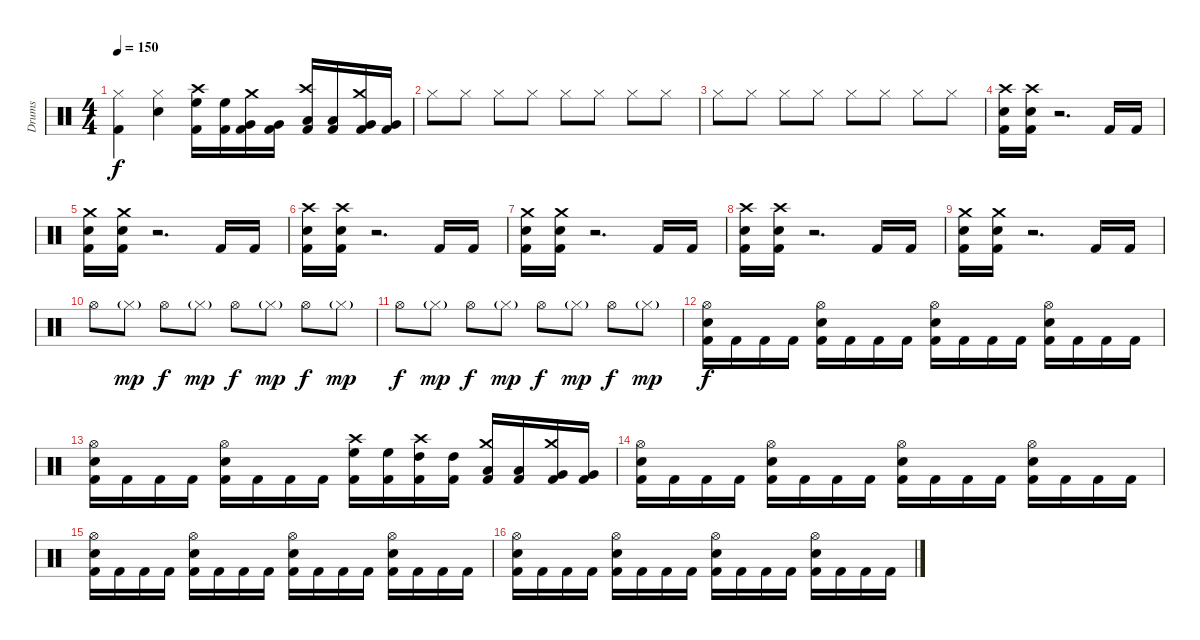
\track ("Drums" "Drums") {instrument percussion}
\staff {score}
\articulation defaults
\ts (4 4)
\tempo 150
\clef neutral
\ks c
("Hi-Hat (closed)" "Kick (hit) 2").4{dy f} ("Hi-Hat (closed)" "Snare (hit) 2").4 ("Crash high (hit)" "High Floor Tom (hit)" "Kick (hit) 2").16 ("High Floor Tom (hit)" "Kick (hit) 2").16 ("Crash medium (hit)" "Very Low Tom (hit)" "Kick (hit) 2").16 ("Very Low Tom (hit)" "Kick (hit) 2").16 ("Crash high (hit)" "Low Tom (hit)" "Kick (hit) 2").16 ("Low Tom (hit)" "Kick (hit) 2").16 ("Crash medium (hit)" "Very Low Tom (hit)" "Kick (hit) 2").16 ("Very Low Tom (hit)" "Kick (hit) 2").16 |
"Hi-Hat (closed)".8 "Hi-Hat (closed)".8 "Hi-Hat (closed)".8 "Hi-Hat (closed)".8 "Hi-Hat (closed)".8 "Hi-Hat (closed)".8 "Hi-Hat (closed)".8 "Hi-Hat (closed)".8 |
"Hi-Hat (closed)".8 "Hi-Hat (closed)".8 "Hi-Hat (closed)".8 "Hi-Hat (closed)".8 "Hi-Hat (closed)".8 "Hi-Hat (closed)".8 "Hi-Hat (closed)".8 "Hi-Hat (closed)".8 |
("Crash high (hit)" "Snare (hit) 2" "Kick (hit) 2").16 ("Crash high (hit)" "Snare (hit) 2" "Kick (hit) 2").16 r.2{d} "Kick (hit) 2".16 "Kick (hit) 2".16 |
("Crash medium (hit)" "Snare (hit) 2" "Kick (hit) 2").16 ("Crash medium (hit)" "Snare (hit) 2" "Kick (hit) 2").16 r.2{d} "Kick (hit) 2".16 "Kick (hit) 2".16 |
("Crash high (hit)" "Snare (hit) 2" "Kick (hit) 2").16 ("Crash high (hit)" "Snare (hit) 2" "Kick (hit) 2").16 r.2{d} "Kick (hit) 2".16 "Kick (hit) 2".16 |
("Crash medium (hit)" "Snare (hit) 2" "Kick (hit) 2").16 ("Crash medium (hit)" "Snare (hit) 2" "Kick (hit) 2").16 r.2{d} "Kick (hit) 2".16 "Kick (hit) 2".16 |
("Crash high (hit)" "Snare (hit) 2" "Kick (hit) 2").16 ("Crash high (hit)" "Snare (hit) 2" "Kick (hit) 2").16 r.2{d} "Kick (hit) 2".16 "Kick (hit) 2".16 |
("Crash medium (hit)" "Snare (hit) 2" "Kick (hit) 2").16 ("Crash medium (hit)" "Snare (hit) 2" "Kick (hit) 2").16 r.2{d} "Kick (hit) 2".16 "Kick (hit) 2".16 |
"Hi-Hat (open)".8 "Hi-Hat (closed)"{g}.8{dy mp} "Hi-Hat (open)".8{dy f} "Hi-Hat (closed)"{g}.8{dy mp} "Hi-Hat (open)".8{dy f} "Hi-Hat (closed)"{g}.8{dy mp} "Hi-Hat (open)".8{dy f} "Hi-Hat (closed)"{g}.8{dy mp} |
"Hi-Hat (open)".8{dy f} "Hi-Hat (closed)"{g}.8{dy mp} "Hi-Hat (open)".8{dy f} "Hi-Hat (closed)"{g}.8{dy mp} "Hi-Hat (open)".8{dy f} "Hi-Hat (closed)"{g}.8{dy mp} "Hi-Hat (open)".8{dy f} "Hi-Hat (closed)"{g}.8{dy mp} |
("Hi-Hat (open)" "Snare (hit) 2" "Kick (hit) 2").16{dy f} "Kick (hit) 2".16 "Kick (hit) 2".16 "Kick (hit) 2".16 ("Hi-Hat (open)" "Snare (hit) 2" "Kick (hit) 2").16 "Kick (hit) 2".16 "Kick (hit) 2".16 "Kick (hit) 2".16 ("Hi-Hat (open)" "Snare (hit) 2" "Kick (hit) 2").16 "Kick (hit) 2".16 "Kick (hit) 2".16 "Kick (hit) 2".16 ("Hi-Hat (open)" "Snare (hit) 2" "Kick (hit) 2").16 "Kick (hit) 2".16 "Kick (hit) 2".16 "Kick (hit) 2".16 |
("Hi-Hat (open)" "Snare (hit) 2" "Kick (hit) 2").16 "Kick (hit) 2".16 "Kick (hit) 2".16 "Kick (hit) 2".16 ("Hi-Hat (open)" "Snare (hit) 2" "Kick (hit) 2").16 "Kick (hit) 2".16 "Kick (hit) 2".16 "Kick (hit) 2".16 ("Crash high (hit)" "High Floor Tom (hit)" "Kick (hit) 2").16 ("High Floor Tom (hit)" "Kick (hit) 2").16 ("Crash high (hit)" "High Tom (hit)" "Kick (hit) 2").16 ("High Tom (hit)" "Kick (hit) 2").16 ("Crash medium (hit)" "Low Tom (hit)" "Kick (hit) 2").16 ("Low Tom (hit)" "Kick (hit) 2").16 ("Crash medium (hit)" "Very Low Tom (hit)" "Kick (hit) 2").16 ("Very Low Tom (hit)" "Kick (hit) 2").16 |
("Hi-Hat (open)" "Snare (hit) 2" "Kick (hit) 2").16 "Kick (hit) 2".16 "Kick (hit) 2".16 "Kick (hit) 2".16 ("Hi-Hat (open)" "Snare (hit) 2" "Kick (hit) 2").16 "Kick (hit) 2".16 "Kick (hit) 2".16 "Kick (hit) 2".16 ("Hi-Hat (open)" "Snare (hit) 2" "Kick (hit) 2").16 "Kick (hit) 2".16 "Kick (hit) 2".16 "Kick (hit) 2".16 ("Hi-Hat (open)" "Snare (hit) 2" "Kick (hit) 2").16 "Kick (hit) 2".16 "Kick (hit) 2".16 "Kick (hit) 2".16 |
("Hi-Hat (open)" "Snare (hit) 2" "Kick (hit) 2").16 "Kick (hit) 2".16 "Kick (hit) 2".16 "Kick (hit) 2".16 ("Hi-Hat (open)" "Snare (hit) 2" "Kick (hit) 2").16 "Kick (hit) 2".16 "Kick (hit) 2".16 "Kick (hit) 2".16 ("Hi-Hat (open)" "Snare (hit) 2" "Kick (hit) 2").16 "Kick (hit) 2".16 "Kick (hit) 2".16 "Kick (hit) 2".16 ("Hi-Hat (open)" "Snare (hit) 2" "Kick (hit) 2").16 "Kick (hit) 2".16 "Kick (hit) 2".16 "Kick (hit) 2".16 |
("Hi-Hat (open)" "Snare (hit) 2" "Kick (hit) 2").16 "Kick (hit) 2".16 "Kick (hit) 2".16 "Kick (hit) 2".16 ("Hi-Hat (open)" "Snare (hit) 2" "Kick (hit) 2").16 "Kick (hit) 2".16 "Kick (hit) 2".16 "Kick (hit) 2".16 ("Hi-Hat (open)" "Snare (hit) 2" "Kick (hit) 2").16 "Kick (hit) 2".16 "Kick (hit) 2".16 "Kick (hit) 2".16 ("Hi-Hat (open)" "Snare (hit) 2" "Kick (hit) 2").16 "Kick (hit) 2".16 "Kick (hit) 2".16 "Kick (hit) 2".16
